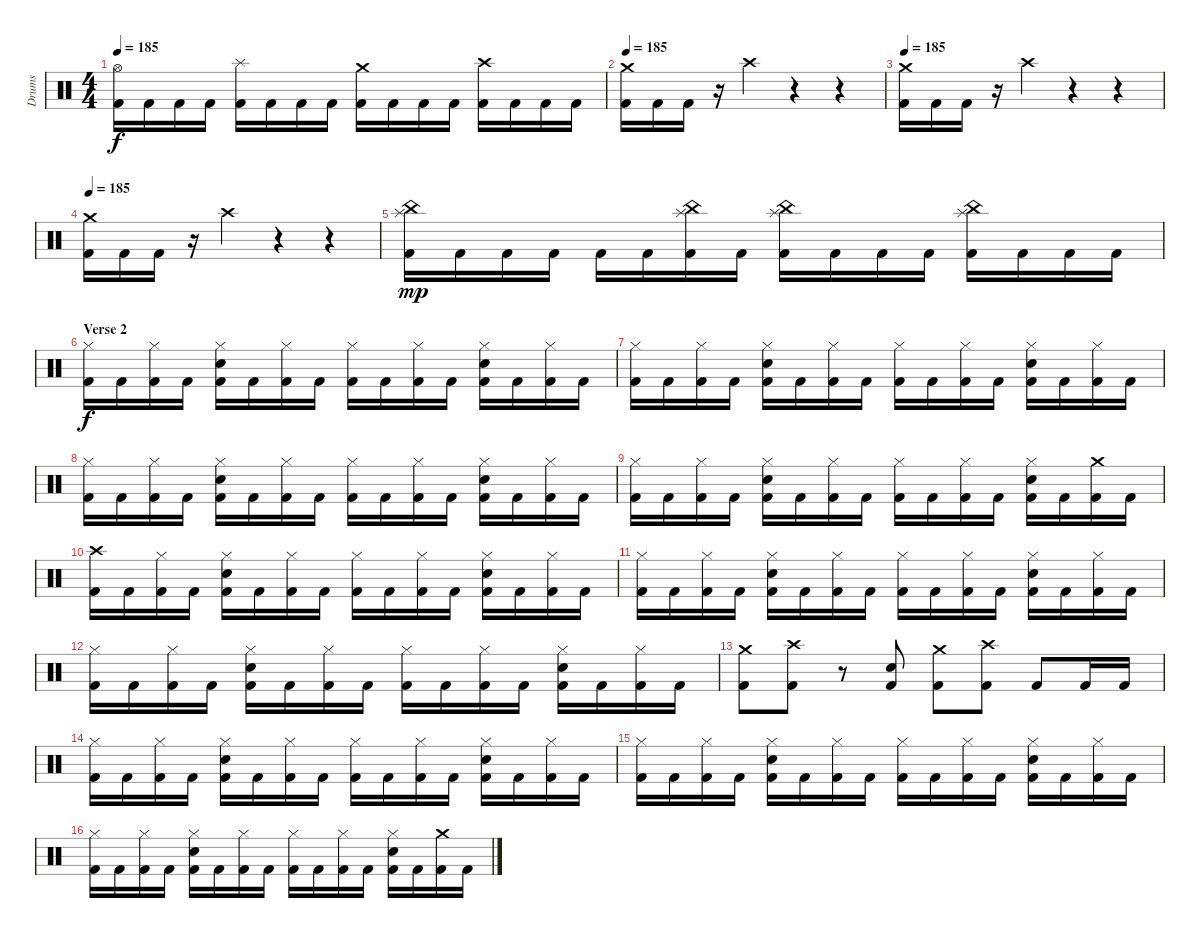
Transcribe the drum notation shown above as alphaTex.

\track ("Drums" "Drums") {instrument percussion}
\staff {score}
\articulation defaults
\ts (4 4)
\tempo 185
\clef neutral
\ks c
("Hi-Hat (open)" "Kick (hit) 2").16{dy f} "Kick (hit) 2".16 "Kick (hit) 2".16 "Kick (hit) 2".16 ("Splash (hit)" "Kick (hit) 2").16 "Kick (hit) 2".16 "Kick (hit) 2".16 "Kick (hit) 2".16 ("Crash medium (hit)" "Kick (hit) 2").16 "Kick (hit) 2".16 "Kick (hit) 2".16 "Kick (hit) 2".16 ("Crash high (hit)" "Kick (hit) 2").16 "Kick (hit) 2".16 "Kick (hit) 2".16 "Kick (hit) 2".16 |
\tempo 185
("Crash medium (hit)" "Kick (hit) 2").16 "Kick (hit) 2".16 "Kick (hit) 2".16 r.16 "Crash high (hit)".4 r.4 r.4 |
\tempo 185
("Crash medium (hit)" "Kick (hit) 2").16 "Kick (hit) 2".16 "Kick (hit) 2".16 r.16 "Crash high (hit)".4 r.4 r.4 |
\tempo 185
("Crash medium (hit)" "Kick (hit) 2").16 "Kick (hit) 2".16 "Kick (hit) 2".16 r.16 "Crash high (hit)".4 r.4 r.4 |
("Splash (hit)" "China (hit)" "Kick (hit) 2").16{dy mp} "Kick (hit) 2".16 "Kick (hit) 2".16 "Kick (hit) 2".16 "Kick (hit) 2".16 "Kick (hit) 2".16 ("Splash (hit)" "China (hit)" "Kick (hit) 2").16 "Kick (hit) 2".16 ("Splash (hit)" "China (hit)" "Kick (hit) 2").16 "Kick (hit) 2".16 "Kick (hit) 2".16 "Kick (hit) 2".16 ("Splash (hit)" "China (hit)" "Kick (hit) 2").16 "Kick (hit) 2".16 "Kick (hit) 2".16 "Kick (hit) 2".16 |
\section ("" "Verse 2")
("Hi-Hat (closed)" "Kick (hit) 2").16{dy f} "Kick (hit) 2".16 ("Hi-Hat (closed)" "Kick (hit) 2").16 "Kick (hit) 2".16 ("Hi-Hat (closed)" "Electric Snare (hit)" "Kick (hit) 2").16 "Kick (hit) 2".16 ("Hi-Hat (closed)" "Kick (hit) 2").16 "Kick (hit) 2".16 ("Hi-Hat (closed)" "Kick (hit) 2").16 "Kick (hit) 2".16 ("Hi-Hat (closed)" "Kick (hit) 2").16 "Kick (hit) 2".16 ("Hi-Hat (closed)" "Electric Snare (hit)" "Kick (hit) 2").16 "Kick (hit) 2".16 ("Hi-Hat (closed)" "Kick (hit) 2").16 "Kick (hit) 2".16 |
("Hi-Hat (closed)" "Kick (hit) 2").16 "Kick (hit) 2".16 ("Hi-Hat (closed)" "Kick (hit) 2").16 "Kick (hit) 2".16 ("Hi-Hat (closed)" "Electric Snare (hit)" "Kick (hit) 2").16 "Kick (hit) 2".16 ("Hi-Hat (closed)" "Kick (hit) 2").16 "Kick (hit) 2".16 ("Hi-Hat (closed)" "Kick (hit) 2").16 "Kick (hit) 2".16 ("Hi-Hat (closed)" "Kick (hit) 2").16 "Kick (hit) 2".16 ("Hi-Hat (closed)" "Electric Snare (hit)" "Kick (hit) 2").16 "Kick (hit) 2".16 ("Hi-Hat (closed)" "Kick (hit) 2").16 "Kick (hit) 2".16 |
("Hi-Hat (closed)" "Kick (hit) 2").16 "Kick (hit) 2".16 ("Hi-Hat (closed)" "Kick (hit) 2").16 "Kick (hit) 2".16 ("Hi-Hat (closed)" "Electric Snare (hit)" "Kick (hit) 2").16 "Kick (hit) 2".16 ("Hi-Hat (closed)" "Kick (hit) 2").16 "Kick (hit) 2".16 ("Hi-Hat (closed)" "Kick (hit) 2").16 "Kick (hit) 2".16 ("Hi-Hat (closed)" "Kick (hit) 2").16 "Kick (hit) 2".16 ("Hi-Hat (closed)" "Electric Snare (hit)" "Kick (hit) 2").16 "Kick (hit) 2".16 ("Hi-Hat (closed)" "Kick (hit) 2").16 "Kick (hit) 2".16 |
("Hi-Hat (closed)" "Kick (hit) 2").16 "Kick (hit) 2".16 ("Hi-Hat (closed)" "Kick (hit) 2").16 "Kick (hit) 2".16 ("Hi-Hat (closed)" "Electric Snare (hit)" "Kick (hit) 2").16 "Kick (hit) 2".16 ("Hi-Hat (closed)" "Kick (hit) 2").16 "Kick (hit) 2".16 ("Hi-Hat (closed)" "Kick (hit) 2").16 "Kick (hit) 2".16 ("Hi-Hat (closed)" "Kick (hit) 2").16 "Kick (hit) 2".16 ("Hi-Hat (closed)" "Electric Snare (hit)" "Kick (hit) 2").16 "Kick (hit) 2".16 ("Crash medium (hit)" "Kick (hit) 2").16 "Kick (hit) 2".16 |
("Crash high (hit)" "Kick (hit) 2").16 "Kick (hit) 2".16 ("Hi-Hat (closed)" "Kick (hit) 2").16 "Kick (hit) 2".16 ("Hi-Hat (closed)" "Electric Snare (hit)" "Kick (hit) 2").16 "Kick (hit) 2".16 ("Hi-Hat (closed)" "Kick (hit) 2").16 "Kick (hit) 2".16 ("Hi-Hat (closed)" "Kick (hit) 2").16 "Kick (hit) 2".16 ("Hi-Hat (closed)" "Kick (hit) 2").16 "Kick (hit) 2".16 ("Hi-Hat (closed)" "Electric Snare (hit)" "Kick (hit) 2").16 "Kick (hit) 2".16 ("Hi-Hat (closed)" "Kick (hit) 2").16 "Kick (hit) 2".16 |
("Hi-Hat (closed)" "Kick (hit) 2").16 "Kick (hit) 2".16 ("Hi-Hat (closed)" "Kick (hit) 2").16 "Kick (hit) 2".16 ("Hi-Hat (closed)" "Electric Snare (hit)" "Kick (hit) 2").16 "Kick (hit) 2".16 ("Hi-Hat (closed)" "Kick (hit) 2").16 "Kick (hit) 2".16 ("Hi-Hat (closed)" "Kick (hit) 2").16 "Kick (hit) 2".16 ("Hi-Hat (closed)" "Kick (hit) 2").16 "Kick (hit) 2".16 ("Hi-Hat (closed)" "Electric Snare (hit)" "Kick (hit) 2").16 "Kick (hit) 2".16 ("Hi-Hat (closed)" "Kick (hit) 2").16 "Kick (hit) 2".16 |
("Hi-Hat (closed)" "Kick (hit) 2").16 "Kick (hit) 2".16 ("Hi-Hat (closed)" "Kick (hit) 2").16 "Kick (hit) 2".16 ("Hi-Hat (closed)" "Electric Snare (hit)" "Kick (hit) 2").16 "Kick (hit) 2".16 ("Hi-Hat (closed)" "Kick (hit) 2").16 "Kick (hit) 2".16 ("Hi-Hat (closed)" "Kick (hit) 2").16 "Kick (hit) 2".16 ("Hi-Hat (closed)" "Kick (hit) 2").16 "Kick (hit) 2".16 ("Hi-Hat (closed)" "Electric Snare (hit)" "Kick (hit) 2").16 "Kick (hit) 2".16 ("Hi-Hat (closed)" "Kick (hit) 2").16 "Kick (hit) 2".16 |
("Crash medium (hit)" "Kick (hit) 2").8 ("Crash high (hit)" "Kick (hit) 2").8 r.8 ("Electric Snare (hit)" "Kick (hit) 2").8 ("Crash medium (hit)" "Kick (hit) 2").8 ("Crash high (hit)" "Kick (hit) 2").8 "Kick (hit) 2".8 "Kick (hit) 2".16 "Kick (hit) 2".16 |
("Hi-Hat (closed)" "Kick (hit) 2").16 "Kick (hit) 2".16 ("Hi-Hat (closed)" "Kick (hit) 2").16 "Kick (hit) 2".16 ("Hi-Hat (closed)" "Electric Snare (hit)" "Kick (hit) 2").16 "Kick (hit) 2".16 ("Hi-Hat (closed)" "Kick (hit) 2").16 "Kick (hit) 2".16 ("Hi-Hat (closed)" "Kick (hit) 2").16 "Kick (hit) 2".16 ("Hi-Hat (closed)" "Kick (hit) 2").16 "Kick (hit) 2".16 ("Hi-Hat (closed)" "Electric Snare (hit)" "Kick (hit) 2").16 "Kick (hit) 2".16 ("Hi-Hat (closed)" "Kick (hit) 2").16 "Kick (hit) 2".16 |
("Hi-Hat (closed)" "Kick (hit) 2").16 "Kick (hit) 2".16 ("Hi-Hat (closed)" "Kick (hit) 2").16 "Kick (hit) 2".16 ("Hi-Hat (closed)" "Electric Snare (hit)" "Kick (hit) 2").16 "Kick (hit) 2".16 ("Hi-Hat (closed)" "Kick (hit) 2").16 "Kick (hit) 2".16 ("Hi-Hat (closed)" "Kick (hit) 2").16 "Kick (hit) 2".16 ("Hi-Hat (closed)" "Kick (hit) 2").16 "Kick (hit) 2".16 ("Hi-Hat (closed)" "Electric Snare (hit)" "Kick (hit) 2").16 "Kick (hit) 2".16 ("Hi-Hat (closed)" "Kick (hit) 2").16 "Kick (hit) 2".16 |
("Hi-Hat (closed)" "Kick (hit) 2").16 "Kick (hit) 2".16 ("Hi-Hat (closed)" "Kick (hit) 2").16 "Kick (hit) 2".16 ("Hi-Hat (closed)" "Electric Snare (hit)" "Kick (hit) 2").16 "Kick (hit) 2".16 ("Hi-Hat (closed)" "Kick (hit) 2").16 "Kick (hit) 2".16 ("Hi-Hat (closed)" "Kick (hit) 2").16 "Kick (hit) 2".16 ("Hi-Hat (closed)" "Kick (hit) 2").16 "Kick (hit) 2".16 ("Hi-Hat (closed)" "Electric Snare (hit)" "Kick (hit) 2").16 "Kick (hit) 2".16 ("Crash medium (hit)" "Kick (hit) 2").16 "Kick (hit) 2".16
